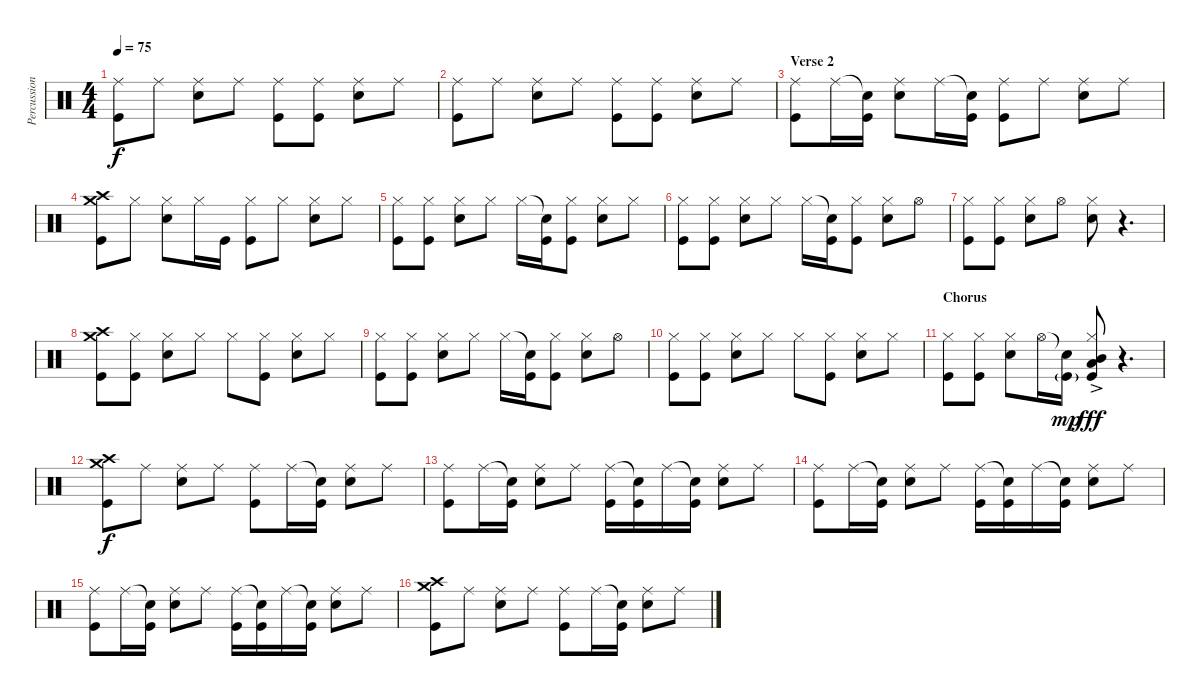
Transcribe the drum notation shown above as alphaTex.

\track ("Percussion" "Percussion") {instrument percussion}
\staff {score}
\articulation defaults
\ts (4 4)
\tempo 75
\clef neutral
\ks c
("Ride (middle)" "Kick (hit)").8{dy f} "Ride (middle)".8 ("Ride (middle)" "Snare (hit) 2").8 "Ride (middle)".8 ("Ride (middle)" "Kick (hit)").8 ("Ride (middle)" "Kick (hit)").8 ("Ride (middle)" "Snare (hit) 2").8 "Ride (middle)".8 |
("Ride (middle)" "Kick (hit)").8 "Ride (middle)".8 ("Ride (middle)" "Snare (hit) 2").8 "Ride (middle)".8 ("Ride (middle)" "Kick (hit)").8 ("Ride (middle)" "Kick (hit)").8 ("Ride (middle)" "Snare (hit) 2").8 "Ride (middle)".8 |
\section ("" "Verse 2")
("Ride (middle)" "Kick (hit)").8 "Ride (middle)".16 ("Snare (hit)"{t} "Kick (hit)").16 ("Ride (middle)" "Snare (hit) 2").8 "Ride (middle)".16 ("Snare (hit)"{t} "Kick (hit)").16 ("Ride (middle)" "Kick (hit)").8 "Ride (middle)".8 ("Ride (middle)" "Snare (hit) 2").8 "Ride (middle)".8 |
("Crash high (hit)" "Crash medium (hit)" "Kick (hit)").8 "Hi-Hat (closed)".8 ("Hi-Hat (closed)" "Snare (hit) 2").8 "Hi-Hat (closed)".16 "Kick (hit)".16 ("Hi-Hat (closed)" "Kick (hit)").8 "Hi-Hat (closed)".8 ("Hi-Hat (closed)" "Snare (hit) 2").8 "Hi-Hat (closed)".8 |
("Hi-Hat (closed)" "Kick (hit)").8 ("Hi-Hat (closed)" "Kick (hit)").8 ("Hi-Hat (closed)" "Snare (hit) 2").8 "Hi-Hat (closed)".8 "Hi-Hat (closed)".16 ("Snare (hit)"{t} "Kick (hit)").16 ("Hi-Hat (closed)" "Kick (hit)").8 ("Hi-Hat (closed)" "Snare (hit) 2").8 "Hi-Hat (closed)".8 |
("Hi-Hat (closed)" "Kick (hit)").8 ("Hi-Hat (closed)" "Kick (hit)").8 ("Hi-Hat (closed)" "Snare (hit) 2").8 "Hi-Hat (closed)".8 "Hi-Hat (closed)".16 ("Snare (hit)"{t} "Kick (hit)").16 ("Hi-Hat (closed)" "Kick (hit)").8 ("Hi-Hat (closed)" "Snare (hit) 2").8 "Hi-Hat (open)".8 |
("Hi-Hat (closed)" "Kick (hit)").8 ("Hi-Hat (closed)" "Kick (hit)").8 ("Hi-Hat (closed)" "Snare (hit) 2").8 "Hi-Hat (open)".8 ("Hi-Hat (closed)" "Snare (hit) 2").8 r.4{d} |
("Crash high (hit)" "Crash medium (hit)" "Kick (hit)").8 ("Hi-Hat (closed)" "Kick (hit)").8 ("Hi-Hat (closed)" "Snare (hit) 2").8 "Hi-Hat (closed)".8 "Hi-Hat (closed)".8 ("Hi-Hat (closed)" "Kick (hit)").8 ("Hi-Hat (closed)" "Snare (hit) 2").8 "Hi-Hat (closed)".8 |
("Hi-Hat (closed)" "Kick (hit)").8 ("Hi-Hat (closed)" "Kick (hit)").8 ("Hi-Hat (closed)" "Snare (hit) 2").8 "Hi-Hat (closed)".8 "Hi-Hat (closed)".16 ("Snare (hit)"{t} "Kick (hit)").16 ("Hi-Hat (closed)" "Kick (hit)").8 ("Hi-Hat (closed)" "Snare (hit) 2").8 "Hi-Hat (open)".8 |
("Hi-Hat (closed)" "Kick (hit)").8 ("Hi-Hat (closed)" "Kick (hit)").8 ("Hi-Hat (closed)" "Snare (hit) 2").8 "Hi-Hat (closed)".8 "Hi-Hat (closed)".8 ("Hi-Hat (closed)" "Kick (hit)").8 ("Hi-Hat (closed)" "Snare (hit) 2").8 "Hi-Hat (closed)".8 |
\section ("" "Chorus")
("Hi-Hat (closed)" "Kick (hit)").8 ("Hi-Hat (closed)" "Kick (hit)").8 ("Hi-Hat (closed)" "Snare (hit) 2").8 "Hi-Hat (open)".16 ("Snare (hit)"{t} "Kick (hit)"{g}).16{dy mp} ("Hi-Hat (closed)" "Low Tom (hit)"{ac} "Mid Tom (hit)"{ac} "Kick (hit)"{ac}).8{dy fff} r.4{d} |
("Crash high (hit)" "Crash medium (hit)" "Kick (hit)").8{dy f} "Ride (middle)".8 ("Ride (middle)" "Snare (hit) 2").8 "Ride (middle)".8 ("Ride (middle)" "Kick (hit)").8 "Ride (middle)".16 ("Snare (hit)"{t} "Kick (hit)").16 ("Ride (middle)" "Snare (hit) 2").8 "Ride (middle)".8 |
("Ride (middle)" "Kick (hit)").8 "Ride (middle)".16 ("Snare (hit)"{t} "Kick (hit)").16 ("Ride (middle)" "Snare (hit) 2").8 "Ride (middle)".8 ("Ride (middle)" "Kick (hit)").16 ("Snare (hit)"{t} "Kick (hit)").16 "Ride (middle)".16 ("Snare (hit)"{t} "Kick (hit)").16 ("Ride (middle)" "Snare (hit) 2").8 "Ride (middle)".8 |
("Ride (middle)" "Kick (hit)").8 "Ride (middle)".16 ("Snare (hit)"{t} "Kick (hit)").16 ("Ride (middle)" "Snare (hit) 2").8 "Ride (middle)".8 ("Ride (middle)" "Kick (hit)").16 ("Snare (hit)"{t} "Kick (hit)").16 "Ride (middle)".16 ("Snare (hit)"{t} "Kick (hit)").16 ("Ride (middle)" "Snare (hit) 2").8 "Ride (middle)".8 |
("Ride (middle)" "Kick (hit)").8 "Ride (middle)".16 ("Snare (hit)"{t} "Kick (hit)").16 ("Ride (middle)" "Snare (hit) 2").8 "Ride (middle)".8 ("Ride (middle)" "Kick (hit)").16 ("Snare (hit)"{t} "Kick (hit)").16 "Ride (middle)".16 ("Snare (hit)"{t} "Kick (hit)").16 ("Ride (middle)" "Snare (hit) 2").8 "Ride (middle)".8 |
("Crash high (hit)" "Crash medium (hit)" "Kick (hit)").8 "Ride (middle)".8 ("Ride (middle)" "Snare (hit) 2").8 "Ride (middle)".8 ("Ride (middle)" "Kick (hit)").8 "Ride (middle)".16 ("Snare (hit)"{t} "Kick (hit)").16 ("Ride (middle)" "Snare (hit) 2").8 "Ride (middle)".8
